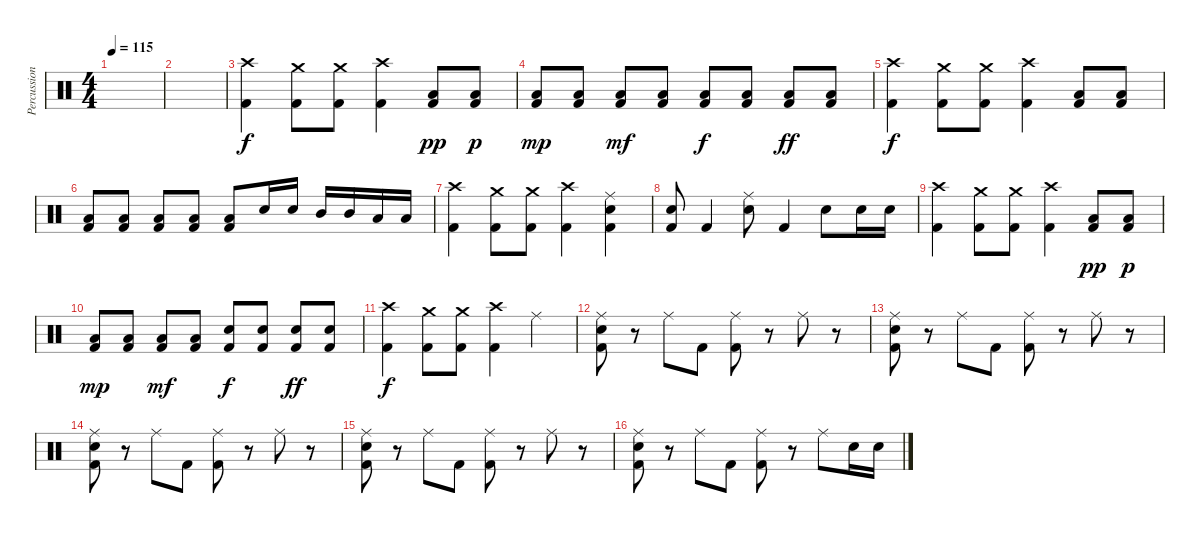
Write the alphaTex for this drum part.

\track ("Percussion" "Percussion") {instrument percussion}
\staff {score}
\articulation defaults
\ts (4 4)
\tempo 115
\clef neutral
\ks c
|
|
("Crash high (hit)" "Kick (hit) 2").4 ("Crash medium (hit)" "Kick (hit) 2").8 ("Crash medium (hit)" "Kick (hit) 2").8 ("Crash high (hit)" "Kick (hit) 2").4 ("Low Floor Tom (hit)" "Kick (hit) 2").8{dy pp} ("Low Floor Tom (hit)" "Kick (hit) 2").8{dy p} |
("Low Floor Tom (hit)" "Kick (hit) 2").8{dy mp} ("Low Floor Tom (hit)" "Kick (hit) 2").8 ("Low Floor Tom (hit)" "Kick (hit) 2").8{dy mf} ("Low Floor Tom (hit)" "Kick (hit) 2").8 ("Low Floor Tom (hit)" "Kick (hit) 2").8{dy f} ("Low Floor Tom (hit)" "Kick (hit) 2").8 ("Low Floor Tom (hit)" "Kick (hit) 2").8{dy ff} ("Low Floor Tom (hit)" "Kick (hit) 2").8 |
("Crash high (hit)" "Kick (hit) 2").4{dy f} ("Crash medium (hit)" "Kick (hit) 2").8 ("Crash medium (hit)" "Kick (hit) 2").8 ("Crash high (hit)" "Kick (hit) 2").4 ("Low Floor Tom (hit)" "Kick (hit) 2").8 ("Low Floor Tom (hit)" "Kick (hit) 2").8 |
("Low Floor Tom (hit)" "Kick (hit) 2").8 ("Low Floor Tom (hit)" "Kick (hit) 2").8 ("Low Floor Tom (hit)" "Kick (hit) 2").8 ("Low Floor Tom (hit)" "Kick (hit) 2").8 ("Low Floor Tom (hit)" "Kick (hit) 2").8 "Electric Snare (hit)".16 "Electric Snare (hit)".16 "Mid Tom (hit)".16 "Mid Tom (hit)".16 "Low Tom (hit)".16 "Low Tom (hit)".16 |
("Crash high (hit)" "Kick (hit) 2").4 ("Crash medium (hit)" "Kick (hit) 2").8 ("Crash medium (hit)" "Kick (hit) 2").8 ("Crash high (hit)" "Kick (hit) 2").4 ("Ride (middle)" "Electric Snare (hit)" "Kick (hit) 2").4 |
("Electric Snare (hit)" "Kick (hit) 2").8 "Kick (hit) 2".4 ("Ride (middle)" "Electric Snare (hit)").8 "Kick (hit) 2".4 "Electric Snare (hit)".8 "Electric Snare (hit)".16 "Electric Snare (hit)".16 |
("Crash high (hit)" "Kick (hit) 2").4 ("Crash medium (hit)" "Kick (hit) 2").8 ("Crash medium (hit)" "Kick (hit) 2").8 ("Crash high (hit)" "Kick (hit) 2").4 ("Low Floor Tom (hit)" "Kick (hit) 2").8{dy pp} ("Low Floor Tom (hit)" "Kick (hit) 2").8{dy p} |
("Low Floor Tom (hit)" "Kick (hit) 2").8{dy mp} ("Low Floor Tom (hit)" "Kick (hit) 2").8 ("Low Floor Tom (hit)" "Kick (hit) 2").8{dy mf} ("Low Floor Tom (hit)" "Kick (hit) 2").8 ("Electric Snare (hit)" "Kick (hit) 2").8{dy f} ("Electric Snare (hit)" "Kick (hit) 2").8 ("Electric Snare (hit)" "Kick (hit) 2").8{dy ff} ("Electric Snare (hit)" "Kick (hit) 2").8 |
("Crash high (hit)" "Kick (hit) 2").4{dy f} ("Crash medium (hit)" "Kick (hit) 2").8 ("Crash medium (hit)" "Kick (hit) 2").8 ("Crash high (hit)" "Kick (hit) 2").4 "Ride (middle)".4 |
("Ride (middle)" "Electric Snare (hit)" "Kick (hit) 2").8 r.8 "Ride (middle)".8 "Kick (hit) 2".8 ("Ride (middle)" "Kick (hit) 2").8 r.8 "Ride (middle)".8 r.8 |
("Ride (middle)" "Electric Snare (hit)" "Kick (hit) 2").8 r.8 "Ride (middle)".8 "Kick (hit) 2".8 ("Ride (middle)" "Kick (hit) 2").8 r.8 "Ride (middle)".8 r.8 |
("Ride (middle)" "Electric Snare (hit)" "Kick (hit) 2").8 r.8 "Ride (middle)".8 "Kick (hit) 2".8 ("Ride (middle)" "Kick (hit) 2").8 r.8 "Ride (middle)".8 r.8 |
("Ride (middle)" "Electric Snare (hit)" "Kick (hit) 2").8 r.8 "Ride (middle)".8 "Kick (hit) 2".8 ("Ride (middle)" "Kick (hit) 2").8 r.8 "Ride (middle)".8 r.8 |
("Ride (middle)" "Electric Snare (hit)" "Kick (hit) 2").8 r.8 "Ride (middle)".8 "Kick (hit) 2".8 ("Ride (middle)" "Kick (hit) 2").8 r.8 "Ride (middle)".8 "Electric Snare (hit)".16 "Electric Snare (hit)".16
